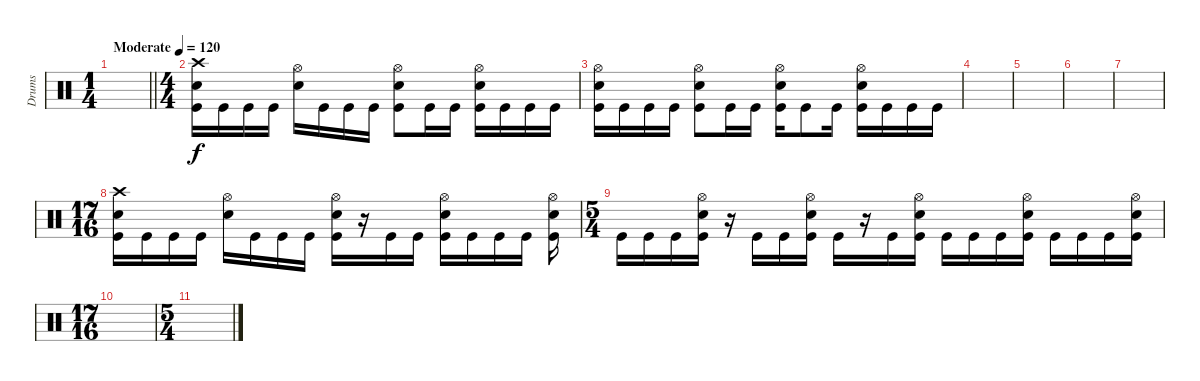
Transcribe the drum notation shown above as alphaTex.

\track ("Drums" "Drums") {instrument percussion}
\staff
\articulation defaults
\ts (1 4)
\tempo (120 "Moderate")
\clef neutral
\barLineRight lightlight
\ks c
|
\ts (4 4)
("Crash high (hit)" "Electric Snare (hit)" "Kick (hit)").16 "Kick (hit)".16 "Kick (hit)".16 "Kick (hit)".16 ("Hi-Hat (open)" "Electric Snare (hit)").16 "Kick (hit)".16 "Kick (hit)".16 "Kick (hit)".16 ("Hi-Hat (open)" "Electric Snare (hit)" "Kick (hit)").8 "Kick (hit)".16 "Kick (hit)".16 ("Hi-Hat (open)" "Electric Snare (hit)" "Kick (hit)").16 "Kick (hit)".16 "Kick (hit)".16 "Kick (hit)".16 |
("Hi-Hat (open)" "Electric Snare (hit)" "Kick (hit)").16 "Kick (hit)".16 "Kick (hit)".16 "Kick (hit)".16 ("Hi-Hat (open)" "Electric Snare (hit)" "Kick (hit)").8 "Kick (hit)".16 "Kick (hit)".16 ("Hi-Hat (open)" "Electric Snare (hit)" "Kick (hit)").16 "Kick (hit)".8 "Kick (hit)".16 ("Hi-Hat (open)" "Electric Snare (hit)" "Kick (hit)").16 "Kick (hit)".16 "Kick (hit)".16 "Kick (hit)".16 |
|
|
|
|
\ts (17 16)
("Crash high (hit)" "Electric Snare (hit)" "Kick (hit)").16 "Kick (hit)".16 "Kick (hit)".16 "Kick (hit)".16 ("Hi-Hat (open)" "Electric Snare (hit)").16 "Kick (hit)".16 "Kick (hit)".16 "Kick (hit)".16 ("Hi-Hat (open)" "Electric Snare (hit)" "Kick (hit)").16 r.16 "Kick (hit)".16 "Kick (hit)".16 ("Hi-Hat (open)" "Electric Snare (hit)" "Kick (hit)").16 "Kick (hit)".16 "Kick (hit)".16 "Kick (hit)".16 ("Hi-Hat (open)" "Electric Snare (hit)" "Kick (hit)").16 |
\ts (5 4)
"Kick (hit)".16 "Kick (hit)".16 "Kick (hit)".16 ("Hi-Hat (open)" "Electric Snare (hit)" "Kick (hit)").16 r.16 "Kick (hit)".16 "Kick (hit)".16 ("Hi-Hat (open)" "Electric Snare (hit)" "Kick (hit)").16 "Kick (hit)".16 r.16 "Kick (hit)".16 ("Hi-Hat (open)" "Electric Snare (hit)" "Kick (hit)").16 "Kick (hit)".16 "Kick (hit)".16 "Kick (hit)".16 ("Hi-Hat (open)" "Electric Snare (hit)" "Kick (hit)").16 "Kick (hit)".16 "Kick (hit)".16 "Kick (hit)".16 ("Hi-Hat (open)" "Electric Snare (hit)" "Kick (hit)").16 |
\ts (17 16)
|
\ts (5 4)
